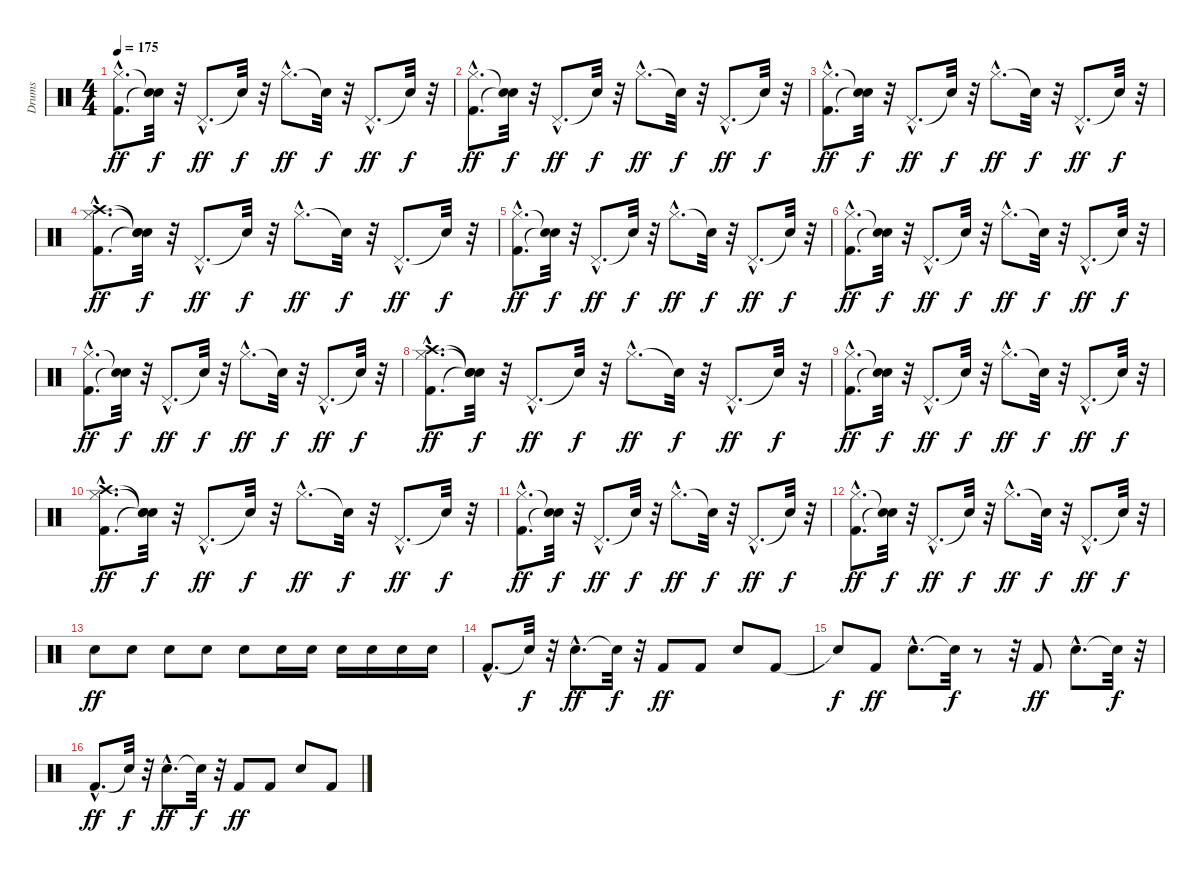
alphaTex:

\track ("Drums" "Drums") {instrument percussion}
\staff {score}
\articulation defaults
\ts (4 4)
\tempo 175
\clef neutral
\ks c
("Kick (hit) 2"{hac} "Hi-Hat (closed)"{hac}).8{d dy ff} ("Snare (hit)"{t} "Snare (hit)"{t}).32{dy f} r.32 "Pedal Hi-Hat (hit)"{hac}.8{d dy ff} "Snare (hit)"{t}.32{dy f} r.32 "Hi-Hat (closed)"{hac}.8{d dy ff} "Snare (hit)"{t}.32{dy f} r.32 "Pedal Hi-Hat (hit)"{hac}.8{d dy ff} "Snare (hit)"{t}.32{dy f} r.32 |
("Kick (hit) 2"{hac} "Hi-Hat (closed)"{hac}).8{d dy ff} ("Snare (hit)"{t} "Snare (hit)"{t}).32{dy f} r.32 "Pedal Hi-Hat (hit)"{hac}.8{d dy ff} "Snare (hit)"{t}.32{dy f} r.32 "Hi-Hat (closed)"{hac}.8{d dy ff} "Snare (hit)"{t}.32{dy f} r.32 "Pedal Hi-Hat (hit)"{hac}.8{d dy ff} "Snare (hit)"{t}.32{dy f} r.32 |
("Kick (hit) 2"{hac} "Hi-Hat (closed)"{hac}).8{d dy ff} ("Snare (hit)"{t} "Snare (hit)"{t}).32{dy f} r.32 "Pedal Hi-Hat (hit)"{hac}.8{d dy ff} "Snare (hit)"{t}.32{dy f} r.32 "Hi-Hat (closed)"{hac}.8{d dy ff} "Snare (hit)"{t}.32{dy f} r.32 "Pedal Hi-Hat (hit)"{hac}.8{d dy ff} "Snare (hit)"{t}.32{dy f} r.32 |
("Kick (hit) 2"{hac} "Hi-Hat (closed)"{hac} "Crash high (hit)"{hac}).8{d dy ff} ("Snare (hit)"{t} "Snare (hit)"{t} "Snare (hit)"{t}).32{dy f} r.32 "Pedal Hi-Hat (hit)"{hac}.8{d dy ff} "Snare (hit)"{t}.32{dy f} r.32 "Hi-Hat (closed)"{hac}.8{d dy ff} "Snare (hit)"{t}.32{dy f} r.32 "Pedal Hi-Hat (hit)"{hac}.8{d dy ff} "Snare (hit)"{t}.32{dy f} r.32 |
("Kick (hit) 2"{hac} "Hi-Hat (closed)"{hac}).8{d dy ff} ("Snare (hit)"{t} "Snare (hit)"{t}).32{dy f} r.32 "Pedal Hi-Hat (hit)"{hac}.8{d dy ff} "Snare (hit)"{t}.32{dy f} r.32 "Hi-Hat (closed)"{hac}.8{d dy ff} "Snare (hit)"{t}.32{dy f} r.32 "Pedal Hi-Hat (hit)"{hac}.8{d dy ff} "Snare (hit)"{t}.32{dy f} r.32 |
("Kick (hit) 2"{hac} "Hi-Hat (closed)"{hac}).8{d dy ff} ("Snare (hit)"{t} "Snare (hit)"{t}).32{dy f} r.32 "Pedal Hi-Hat (hit)"{hac}.8{d dy ff} "Snare (hit)"{t}.32{dy f} r.32 "Hi-Hat (closed)"{hac}.8{d dy ff} "Snare (hit)"{t}.32{dy f} r.32 "Pedal Hi-Hat (hit)"{hac}.8{d dy ff} "Snare (hit)"{t}.32{dy f} r.32 |
("Kick (hit) 2"{hac} "Hi-Hat (closed)"{hac}).8{d dy ff} ("Snare (hit)"{t} "Snare (hit)"{t}).32{dy f} r.32 "Pedal Hi-Hat (hit)"{hac}.8{d dy ff} "Snare (hit)"{t}.32{dy f} r.32 "Hi-Hat (closed)"{hac}.8{d dy ff} "Snare (hit)"{t}.32{dy f} r.32 "Pedal Hi-Hat (hit)"{hac}.8{d dy ff} "Snare (hit)"{t}.32{dy f} r.32 |
("Kick (hit) 2"{hac} "Hi-Hat (closed)"{hac} "Crash high (hit)"{hac}).8{d dy ff} ("Snare (hit)"{t} "Snare (hit)"{t} "Snare (hit)"{t}).32{dy f} r.32 "Pedal Hi-Hat (hit)"{hac}.8{d dy ff} "Snare (hit)"{t}.32{dy f} r.32 "Hi-Hat (closed)"{hac}.8{d dy ff} "Snare (hit)"{t}.32{dy f} r.32 "Pedal Hi-Hat (hit)"{hac}.8{d dy ff} "Snare (hit)"{t}.32{dy f} r.32 |
("Kick (hit) 2"{hac} "Hi-Hat (closed)"{hac}).8{d dy ff} ("Snare (hit)"{t} "Snare (hit)"{t}).32{dy f} r.32 "Pedal Hi-Hat (hit)"{hac}.8{d dy ff} "Snare (hit)"{t}.32{dy f} r.32 "Hi-Hat (closed)"{hac}.8{d dy ff} "Snare (hit)"{t}.32{dy f} r.32 "Pedal Hi-Hat (hit)"{hac}.8{d dy ff} "Snare (hit)"{t}.32{dy f} r.32 |
("Kick (hit) 2"{hac} "Hi-Hat (closed)"{hac} "Crash high (hit)"{hac}).8{d dy ff} ("Snare (hit)"{t} "Snare (hit)"{t} "Snare (hit)"{t}).32{dy f} r.32 "Pedal Hi-Hat (hit)"{hac}.8{d dy ff} "Snare (hit)"{t}.32{dy f} r.32 "Hi-Hat (closed)"{hac}.8{d dy ff} "Snare (hit)"{t}.32{dy f} r.32 "Pedal Hi-Hat (hit)"{hac}.8{d dy ff} "Snare (hit)"{t}.32{dy f} r.32 |
("Kick (hit) 2"{hac} "Hi-Hat (closed)"{hac}).8{d dy ff} ("Snare (hit)"{t} "Snare (hit)"{t}).32{dy f} r.32 "Pedal Hi-Hat (hit)"{hac}.8{d dy ff} "Snare (hit)"{t}.32{dy f} r.32 "Hi-Hat (closed)"{hac}.8{d dy ff} "Snare (hit)"{t}.32{dy f} r.32 "Pedal Hi-Hat (hit)"{hac}.8{d dy ff} "Snare (hit)"{t}.32{dy f} r.32 |
("Kick (hit) 2"{hac} "Hi-Hat (closed)"{hac}).8{d dy ff} ("Snare (hit)"{t} "Snare (hit)"{t}).32{dy f} r.32 "Pedal Hi-Hat (hit)"{hac}.8{d dy ff} "Snare (hit)"{t}.32{dy f} r.32 "Hi-Hat (closed)"{hac}.8{d dy ff} "Snare (hit)"{t}.32{dy f} r.32 "Pedal Hi-Hat (hit)"{hac}.8{d dy ff} "Snare (hit)"{t}.32{dy f} r.32 |
"Electric Snare (hit)".8{dy ff} "Electric Snare (hit)".8 "Electric Snare (hit)".8 "Electric Snare (hit)".8 "Electric Snare (hit)".8 "Electric Snare (hit)".16 "Electric Snare (hit)".16 "Electric Snare (hit)".16 "Electric Snare (hit)".16 "Electric Snare (hit)".16 "Electric Snare (hit)".16 |
"Kick (hit) 2"{hac}.8{d} "Snare (hit)"{t}.32{dy f} r.32 "Electric Snare (hit)"{hac}.8{d dy ff} "Snare (hit)"{t}.32{dy f} r.32 "Kick (hit) 2".8{dy ff} "Kick (hit) 2".8 "Electric Snare (hit)".8 "Kick (hit) 2".8 |
"Snare (hit)"{t}.8{dy f} "Kick (hit) 2".8{dy ff} "Electric Snare (hit)"{hac}.8{d} "Snare (hit)"{t}.32{dy f} r.8 r.32 "Kick (hit) 2".8{dy ff} "Electric Snare (hit)"{hac}.8{d} "Snare (hit)"{t}.32{dy f} r.32 |
"Kick (hit) 2"{hac}.8{d dy ff} "Snare (hit)"{t}.32{dy f} r.32 "Electric Snare (hit)"{hac}.8{d dy ff} "Snare (hit)"{t}.32{dy f} r.32 "Kick (hit) 2".8{dy ff} "Kick (hit) 2".8 "Electric Snare (hit)".8 "Kick (hit) 2".8
